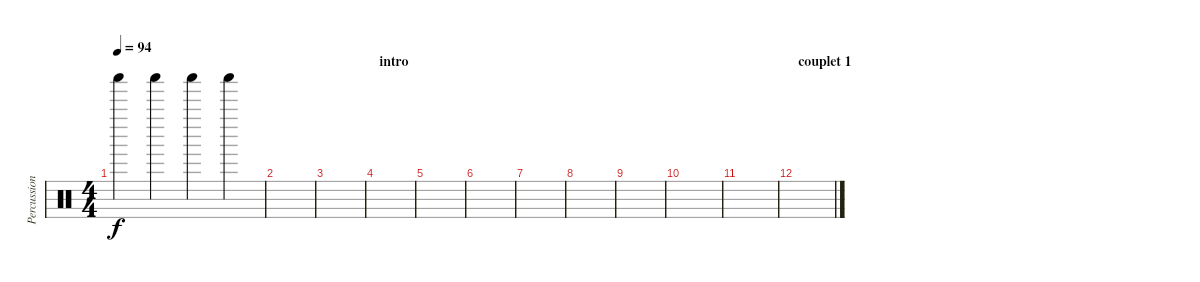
\track ("Percussions" "Percussion") {instrument percussion}
\staff {score}
\articulation defaults
\ts (4 4)
\tempo 94
\clef neutral
\ks c "Shaker (hit)".4{dy f} "Shaker (hit)".4 "Shaker (hit)".4 "Shaker (hit)".4
|
|
|
\section ("" "intro")
|
|
|
|
|
|
|
|
\section ("" "couplet 1")
